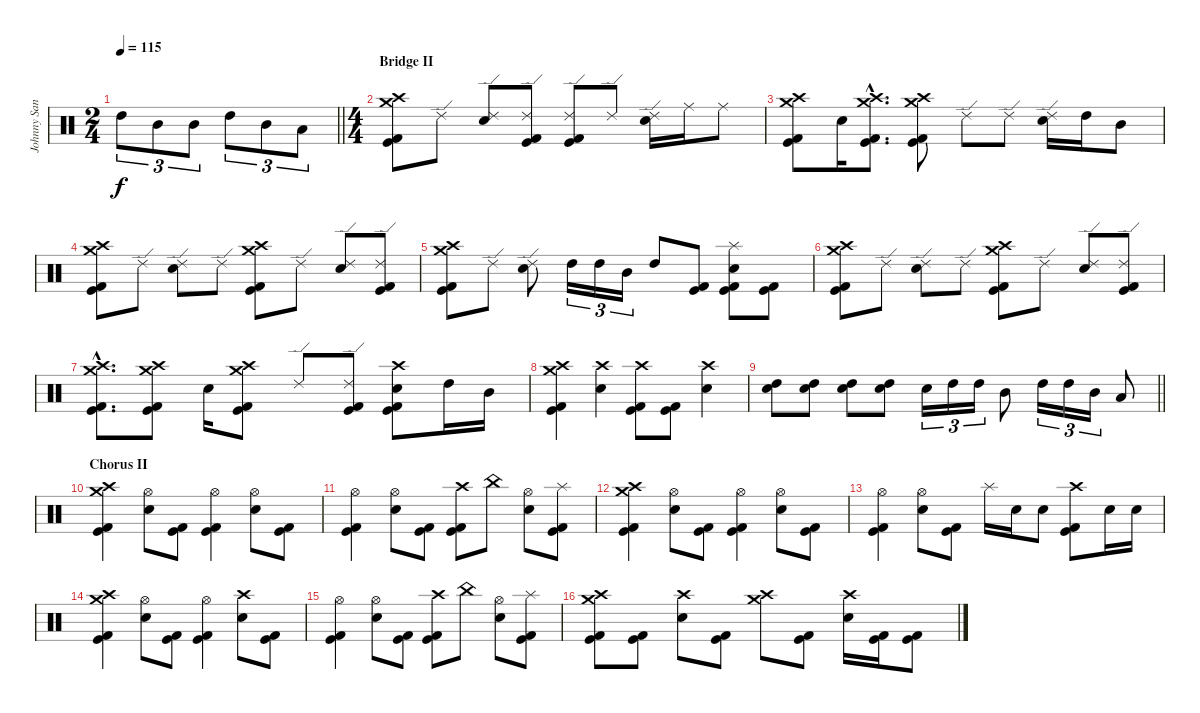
\track ("Johnny Sandin" "Johnny San") {instrument percussion}
\staff {score}
\articulation defaults
\ts (2 4)
\tempo 115
\clef neutral
\barLineRight lightlight
\ks c "High Tom (hit)".8{tu (3 2) dy f} "Mid Tom (hit)".8{tu (3 2)} "Mid Tom (hit)".8{tu (3 2)} "High Tom (hit)".8{tu (3 2)} "Mid Tom (hit)".8{tu (3 2)} "Low Tom (hit)".8{tu (3 2)}
|
\ts (4 4)
\section ("" "Bridge II")
("Crash medium (hit)" "Crash high (hit)" "Kick (hit) 2" "Kick (hit)").8 "Ride (edge) 2".8 ("Ride (edge) 2" "Snare (hit) 2").8 ("Ride (edge) 2" "Kick (hit) 2" "Kick (hit)").8 ("Ride (edge) 2" "Kick (hit) 2" "Kick (hit)").8 "Ride (edge) 2".8 ("Ride (edge) 2" "Snare (hit) 2").16 "Ride (middle)".16 "Ride (middle)".8 |
("Crash medium (hit)" "Crash high (hit)" "Kick (hit) 2" "Kick (hit)").8 "Snare (hit) 2".16 ("Crash medium (hit)"{hac} "Crash high (hit)"{hac} "Kick (hit) 2"{hac} "Kick (hit)"{hac}).8{d} ("Crash medium (hit)" "Crash high (hit)" "Kick (hit) 2" "Kick (hit)").8 "Ride (edge) 2".8 "Ride (edge) 2".8 ("Ride (edge) 2" "Snare (hit) 2").16 "High Tom (hit)".16 "Mid Tom (hit)".8 |
("Crash medium (hit)" "Crash high (hit)" "Kick (hit) 2" "Kick (hit)").8 "Ride (edge) 2".8 ("Ride (edge) 2" "Snare (hit) 2").8 "Ride (edge) 2".8 ("Crash medium (hit)" "Crash high (hit)" "Kick (hit) 2" "Kick (hit)").8 "Ride (edge) 2".8 ("Ride (edge) 2" "Snare (hit) 2").8 ("Ride (edge) 2" "Kick (hit) 2" "Kick (hit)").8 |
("Crash medium (hit)" "Crash high (hit)" "Kick (hit) 2" "Kick (hit)").8 "Ride (edge) 2".8 ("Ride (edge) 2" "Snare (hit) 2").8 "High Tom (hit)".16{tu (3 2)} "High Tom (hit)".16{tu (3 2)} "Mid Tom (hit)".16{tu (3 2)} "High Tom (hit)".8 ("Kick (hit) 2" "Kick (hit)").8 ("Splash (hit)" "Snare (hit) 2" "Kick (hit) 2" "Kick (hit)").8 ("Kick (hit) 2" "Kick (hit)").8 |
("Crash medium (hit)" "Crash high (hit)" "Kick (hit) 2" "Kick (hit)").8 "Ride (edge) 2".8 ("Ride (edge) 2" "Snare (hit) 2").8 "Ride (edge) 2".8 ("Crash medium (hit)" "Crash high (hit)" "Kick (hit) 2" "Kick (hit)").8 "Ride (edge) 2".8 ("Ride (edge) 2" "Snare (hit) 2").8 ("Ride (edge) 2" "Kick (hit) 2" "Kick (hit)").8 |
("Crash medium (hit)"{hac} "Crash high (hit)"{hac} "Kick (hit) 2"{hac} "Kick (hit)"{hac}).8{d} ("Crash medium (hit)" "Crash high (hit)" "Kick (hit) 2" "Kick (hit)").8 "Snare (hit) 2".16 ("Crash medium (hit)" "Crash high (hit)" "Kick (hit) 2" "Kick (hit)").8 "Ride (edge) 2".8 ("Ride (edge) 2" "Kick (hit) 2" "Kick (hit)").8 ("Crash high (hit)" "Snare (hit) 2" "Kick (hit) 2" "Kick (hit)").8 "High Tom (hit)".16 "Mid Tom (hit)".16 |
("Crash medium (hit)" "Crash high (hit)" "Kick (hit) 2" "Kick (hit)").4 ("Crash high (hit)" "Snare (hit) 2").4 ("Crash high (hit)" "Kick (hit) 2" "Kick (hit)").8 ("Kick (hit) 2" "Kick (hit)").8 ("Crash high (hit)" "Snare (hit) 2").4 |
\barLineRight lightlight
("High Tom (hit)" "Snare (hit) 2").8 ("High Tom (hit)" "Snare (hit) 2").8 ("High Tom (hit)" "Snare (hit) 2").8 ("High Tom (hit)" "Snare (hit) 2").8 "Snare (hit) 2".16{tu (3 2)} "High Tom (hit)".16{tu (3 2)} "High Tom (hit)".16{tu (3 2)} "Mid Tom (hit)".8 "High Tom (hit)".16{tu (3 2)} "High Tom (hit)".16{tu (3 2)} "Mid Tom (hit)".16{tu (3 2)} "Low Tom (hit)".8 |
\section ("" "Chorus II ")
("Crash medium (hit)" "Crash high (hit)" "Kick (hit) 2" "Kick (hit)").4 ("Hi-Hat (open)" "Snare (hit) 2").8 ("Kick (hit) 2" "Kick (hit)").8 ("Hi-Hat (open)" "Kick (hit) 2" "Kick (hit)").4 ("Hi-Hat (open)" "Snare (hit) 2").8 ("Kick (hit) 2" "Kick (hit)").8 |
("Hi-Hat (open)" "Kick (hit) 2" "Kick (hit)").4 ("Hi-Hat (open)" "Snare (hit) 2").8 ("Kick (hit) 2" "Kick (hit)").8 ("Crash high (hit)" "Kick (hit) 2" "Kick (hit)").8 "China (hit)".8 ("Hi-Hat (open)" "Snare (hit) 2").8 ("Splash (hit)" "Kick (hit) 2" "Kick (hit)").8 |
("Crash medium (hit)" "Crash high (hit)" "Kick (hit) 2" "Kick (hit)").4 ("Hi-Hat (open)" "Snare (hit) 2").8 ("Kick (hit) 2" "Kick (hit)").8 ("Hi-Hat (open)" "Kick (hit) 2" "Kick (hit)").4 ("Hi-Hat (open)" "Snare (hit) 2").8 ("Kick (hit) 2" "Kick (hit)").8 |
("Hi-Hat (open)" "Kick (hit) 2" "Kick (hit)").4 ("Hi-Hat (open)" "Snare (hit) 2").8 ("Kick (hit) 2" "Kick (hit)").8 "Splash (hit)".16 "Snare (hit) 2".16 "Snare (hit) 2".8 ("Crash high (hit)" "Kick (hit) 2" "Kick (hit)").8 "Snare (hit) 2".16 "Snare (hit) 2".16 |
("Crash medium (hit)" "Crash high (hit)" "Kick (hit) 2" "Kick (hit)").4 ("Hi-Hat (open)" "Snare (hit) 2").8 ("Kick (hit) 2" "Kick (hit)").8 ("Hi-Hat (open)" "Kick (hit) 2" "Kick (hit)").4 ("Crash high (hit)" "Snare (hit) 2").8 ("Kick (hit) 2" "Kick (hit)").8 |
("Hi-Hat (open)" "Kick (hit) 2" "Kick (hit)").4 ("Hi-Hat (open)" "Snare (hit) 2").8 ("Kick (hit) 2" "Kick (hit)").8 ("Crash high (hit)" "Kick (hit) 2" "Kick (hit)").8 "China (hit)".8 ("Hi-Hat (open)" "Snare (hit) 2").8 ("Splash (hit)" "Kick (hit) 2" "Kick (hit)").8 |
("Crash medium (hit)" "Crash high (hit)" "Kick (hit) 2" "Kick (hit)").8 ("Kick (hit) 2" "Kick (hit)").8 ("Crash high (hit)" "Snare (hit) 2").8 ("Kick (hit) 2" "Kick (hit)").8 ("Crash medium (hit)" "Crash high (hit)").8 ("Kick (hit) 2" "Kick (hit)").8 ("Crash high (hit)" "Snare (hit) 2").16 ("Kick (hit)" "Kick (hit) 2").16 ("Kick (hit)" "Kick (hit) 2").8
